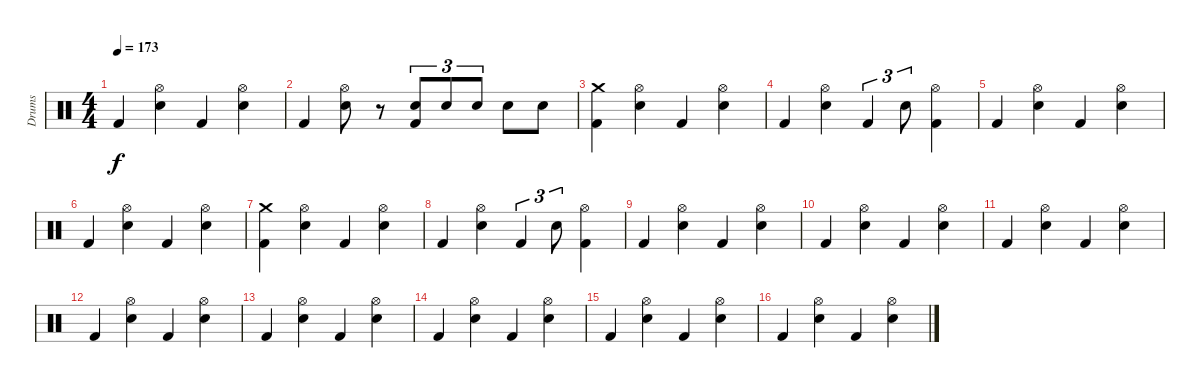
\track ("Drums" "Drums") {instrument percussion}
\staff {score}
\articulation defaults
\ts (4 4)
\tempo 173
\clef neutral
\ks c "Kick (hit) 2".4{dy f}
("Electric Snare (hit)" "Hi-Hat (open)").4 "Kick (hit) 2".4 ("Electric Snare (hit)" "Hi-Hat (open)").4 |
"Kick (hit) 2".4 ("Hi-Hat (open)" "Electric Snare (hit)").8 r.8 ("Electric Snare (hit)" "Kick (hit) 2").8{tu (3 2)} "Electric Snare (hit)".8{tu (3 2)} "Electric Snare (hit)".8{tu (3 2)} "Electric Snare (hit)".8 "Electric Snare (hit)".8 |
("Kick (hit) 2" "Crash medium (hit)").4 ("Electric Snare (hit)" "Hi-Hat (open)").4 "Kick (hit) 2".4 ("Electric Snare (hit)" "Hi-Hat (open)").4 |
"Kick (hit) 2".4 ("Hi-Hat (open)" "Electric Snare (hit)").4 "Kick (hit) 2".4{tu (3 2)} "Electric Snare (hit)".8{tu (3 2)} ("Hi-Hat (open)" "Kick (hit) 2").4 |
"Kick (hit) 2".4 ("Electric Snare (hit)" "Hi-Hat (open)").4 "Kick (hit) 2".4 ("Electric Snare (hit)" "Hi-Hat (open)").4 |
"Kick (hit) 2".4 ("Electric Snare (hit)" "Hi-Hat (open)").4 "Kick (hit) 2".4 ("Electric Snare (hit)" "Hi-Hat (open)").4 |
("Kick (hit) 2" "Crash medium (hit)").4 ("Electric Snare (hit)" "Hi-Hat (open)").4 "Kick (hit) 2".4 ("Electric Snare (hit)" "Hi-Hat (open)").4 |
"Kick (hit) 2".4 ("Hi-Hat (open)" "Electric Snare (hit)").4 "Kick (hit) 2".4{tu (3 2)} "Electric Snare (hit)".8{tu (3 2)} ("Hi-Hat (open)" "Kick (hit) 2").4 |
"Kick (hit) 2".4 ("Electric Snare (hit)" "Hi-Hat (open)").4 "Kick (hit) 2".4 ("Electric Snare (hit)" "Hi-Hat (open)").4 |
"Kick (hit) 2".4 ("Electric Snare (hit)" "Hi-Hat (open)").4 "Kick (hit) 2".4 ("Electric Snare (hit)" "Hi-Hat (open)").4 |
"Kick (hit) 2".4 ("Electric Snare (hit)" "Hi-Hat (open)").4 "Kick (hit) 2".4 ("Electric Snare (hit)" "Hi-Hat (open)").4 |
"Kick (hit) 2".4 ("Electric Snare (hit)" "Hi-Hat (open)").4 "Kick (hit) 2".4 ("Electric Snare (hit)" "Hi-Hat (open)").4 |
"Kick (hit) 2".4 ("Electric Snare (hit)" "Hi-Hat (open)").4 "Kick (hit) 2".4 ("Electric Snare (hit)" "Hi-Hat (open)").4 |
"Kick (hit) 2".4 ("Electric Snare (hit)" "Hi-Hat (open)").4 "Kick (hit) 2".4 ("Electric Snare (hit)" "Hi-Hat (open)").4 |
"Kick (hit) 2".4 ("Electric Snare (hit)" "Hi-Hat (open)").4 "Kick (hit) 2".4 ("Electric Snare (hit)" "Hi-Hat (open)").4 |
"Kick (hit) 2".4 ("Electric Snare (hit)" "Hi-Hat (open)").4 "Kick (hit) 2".4 ("Electric Snare (hit)" "Hi-Hat (open)").4
